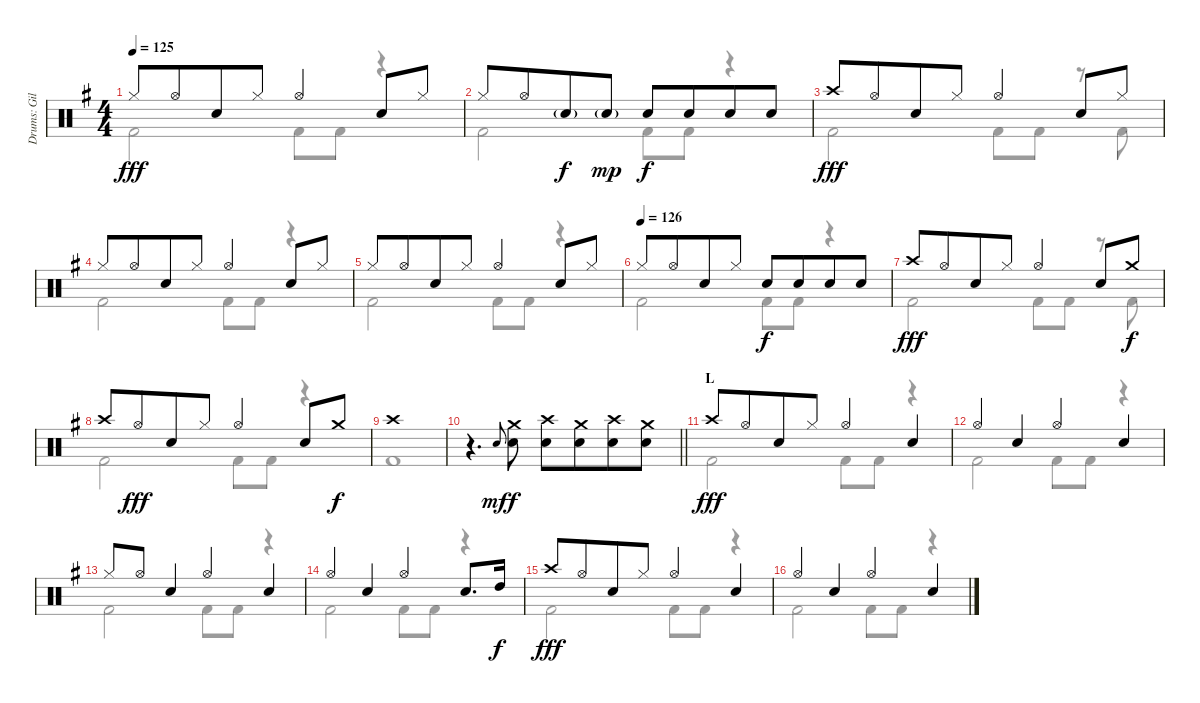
\track ("Drums: Gil" "Drums: Gil") {instrument percussion}
\staff {score}
\articulation defaults
\voice
\ts (4 4)
\tempo 125
\clef neutral
\ks g "Hi-Hat (closed)".8{dy fff} "Hi-Hat (open)".8{beam merge} "Snare (hit) 2".8 "Hi-Hat (closed)".8 "Hi-Hat (open)".4 "Snare (hit) 2".8 "Hi-Hat (closed)".8
|
"Hi-Hat (closed)".8 "Hi-Hat (open)".8{beam merge} "Snare (hit) 2"{g}.8{dy f} "Snare (hit) 2"{g}.8{dy mp} "Snare (hit) 2".8{dy f} "Snare (hit) 2".8{beam merge} "Snare (hit) 2".8 "Snare (hit) 2".8 |
"Crash high (hit)".8{dy fff} "Hi-Hat (open)".8{beam merge} "Snare (hit) 2".8 "Hi-Hat (closed)".8 "Hi-Hat (open)".4 "Snare (hit) 2".8 "Hi-Hat (closed)".8 |
"Hi-Hat (closed)".8 "Hi-Hat (open)".8{beam merge} "Snare (hit) 2".8 "Hi-Hat (closed)".8 "Hi-Hat (open)".4 "Snare (hit) 2".8 "Hi-Hat (closed)".8 |
"Hi-Hat (closed)".8 "Hi-Hat (open)".8{beam merge} "Snare (hit) 2".8 "Hi-Hat (closed)".8 "Hi-Hat (open)".4 "Snare (hit) 2".8 "Hi-Hat (closed)".8 |
\tempo (126)
"Hi-Hat (closed)".8 "Hi-Hat (open)".8{beam merge} "Snare (hit) 2".8 "Hi-Hat (closed)".8 "Snare (hit) 2".8{dy f} "Snare (hit) 2".8{beam merge} "Snare (hit) 2".8 "Snare (hit) 2".8 |
"Crash high (hit)".8{dy fff} "Hi-Hat (open)".8{beam merge} "Snare (hit) 2".8 "Hi-Hat (closed)".8 "Hi-Hat (open)".4 "Snare (hit) 2".8 "Crash medium (hit)".8{dy f} |
"Crash high (hit)".8 "Hi-Hat (open)".8{dy fff beam merge} "Snare (hit) 2".8 "Hi-Hat (closed)".8 "Hi-Hat (open)".4 "Snare (hit) 2".8 "Crash medium (hit)".8{dy f} |
"Crash high (hit)".1 |
\barLineRight lightlight
r.4{d} "Electric Snare (hit)".8{gr onbeat dy mf} ("Crash medium (hit)" "Snare (hit) 2").8{dy f} ("Crash high (hit)" "Snare (hit) 2").8 ("Crash medium (hit)" "Snare (hit) 2").8{beam merge} ("Crash high (hit)" "Snare (hit) 2").8 ("Crash medium (hit)" "Snare (hit) 2").8 |
\section ("" "L")
"Crash high (hit)".8{dy fff} "Hi-Hat (open)".8{beam merge} "Snare (hit) 2".8 "Hi-Hat (closed)".8 "Hi-Hat (open)".4 "Snare (hit) 2".4 |
"Hi-Hat (open)".4 "Snare (hit) 2".4 "Hi-Hat (open)".4 "Snare (hit) 2".4 |
"Hi-Hat (closed)".8 "Hi-Hat (open)".8 "Snare (hit) 2".4 "Hi-Hat (open)".4 "Snare (hit) 2".4 |
"Hi-Hat (open)".4 "Snare (hit) 2".4 "Hi-Hat (open)".4 "Snare (hit) 2".8{d} "High Tom (hit)".16{dy f} |
"Crash high (hit)".8{dy fff volume 8} "Hi-Hat (open)".8{beam merge} "Snare (hit) 2".8 "Hi-Hat (closed)".8 "Hi-Hat (open)".4 "Snare (hit) 2".4 |
"Hi-Hat (open)".4 "Snare (hit) 2".4 "Hi-Hat (open)".4 "Snare (hit) 2".4
\voice
\clef neutral
\ottava regular
\simile none
\ks g "Kick (hit) 2".2{dy fff} "Kick (hit) 2".8 "Kick (hit) 2".8
r.4 |
"Kick (hit) 2".2 "Kick (hit) 2".8 "Kick (hit) 2".8 r.4 |
"Kick (hit) 2".2 "Kick (hit) 2".8 "Kick (hit) 2".8 r.8 "Kick (hit) 2".8 |
"Kick (hit) 2".2 "Kick (hit) 2".8 "Kick (hit) 2".8 r.4 |
"Kick (hit) 2".2 "Kick (hit) 2".8 "Kick (hit) 2".8 r.4 |
"Kick (hit) 2".2 "Kick (hit) 2".8 "Kick (hit) 2".8 r.4 |
"Kick (hit) 2".2 "Kick (hit) 2".8 "Kick (hit) 2".8 r.8 "Kick (hit) 2".8 |
"Kick (hit) 2".2 "Kick (hit) 2".8 "Kick (hit) 2".8 r.4 |
"Kick (hit) 2".1 |
\barLineRight lightlight
|
"Kick (hit) 2".2 "Kick (hit) 2".8 "Kick (hit) 2".8 r.4 |
"Kick (hit) 2".2 "Kick (hit) 2".8 "Kick (hit) 2".8 r.4 |
"Kick (hit) 2".2 "Kick (hit) 2".8 "Kick (hit) 2".8 r.4 |
"Kick (hit) 2".2 "Kick (hit) 2".8 "Kick (hit) 2".8 r.4 |
"Kick (hit) 2".2 "Kick (hit) 2".8 "Kick (hit) 2".8 r.4 |
"Kick (hit) 2".2 "Kick (hit) 2".8 "Kick (hit) 2".8 r.4
